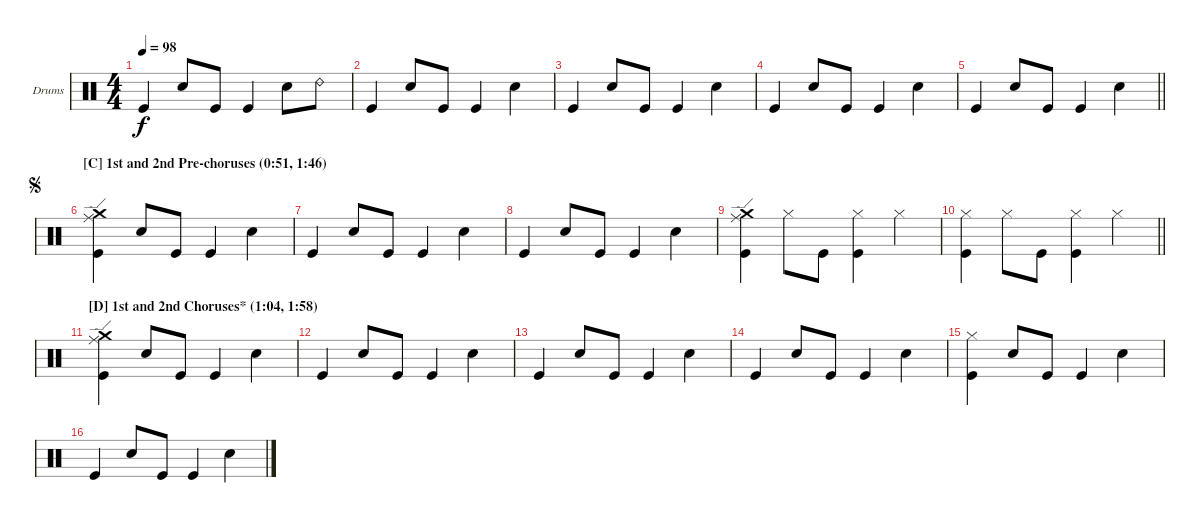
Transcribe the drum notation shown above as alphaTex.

\defaultSystemsLayout 4
\bracketExtendMode groupsimilarinstruments
\firstSystemTrackNameOrientation horizontal
\otherSystemsTrackNameOrientation horizontal
\track ("Drums" "Drums") {instrument percussion}
\staff {score}
\articulation defaults
\ts (4 4)
\tempo 98
\clef neutral
\scale
1.07945
\ks c "Kick (hit)".4{dy f} "Snare (hit) 2".8 "Kick (hit)".8 "Kick (hit)".4 "Snare (hit) 2".8 "Ride (bell) 2".8
|
\scale
0.973518 "Kick (hit)".4 "Snare (hit) 2".8 "Kick (hit)".8 "Kick (hit)".4 "Snare (hit) 2".4 |
\scale
0.973518 "Kick (hit)".4 "Snare (hit) 2".8 "Kick (hit)".8 "Kick (hit)".4 "Snare (hit) 2".4 |
\scale
0.973518 "Kick (hit)".4 "Snare (hit) 2".8 "Kick (hit)".8 "Kick (hit)".4 "Snare (hit) 2".4 |
\scale
1.07945
\barLineRight lightlight "Kick (hit)".4 "Snare (hit) 2".8 "Kick (hit)".8 "Kick (hit)".4 "Snare (hit) 2".4
|
\section ("C" "1st and 2nd Pre-choruses (0:51, 1:46)")
\jump segno
\scale
0.973518 ("Kick (hit)" "Ride (edge)" "Crash medium (hit)").4 "Snare (hit) 2".8 "Kick (hit)".8 "Kick (hit)".4 "Snare (hit) 2".4 |
\scale
0.973518 "Kick (hit)".4 "Snare (hit) 2".8 "Kick (hit)".8 "Kick (hit)".4 "Snare (hit) 2".4 |
\scale
0.973518 "Kick (hit)".4 "Snare (hit) 2".8 "Kick (hit)".8 "Kick (hit)".4 "Snare (hit) 2".4 |
\scale
1.07945 ("Kick (hit)" "Ride (edge)" "Crash medium (hit)").4 "Hi-Hat (closed)".8 "Kick (hit)".8 ("Kick (hit)" "Hi-Hat (closed)").4 "Hi-Hat (closed)".4 |
\scale
0.973518
\barLineRight lightlight
("Kick (hit)" "Hi-Hat (closed)").4 "Hi-Hat (closed)".8 "Kick (hit)".8 ("Kick (hit)" "Hi-Hat (closed)").4 "Hi-Hat (closed)".4 |
\section ("D" "1st and 2nd Choruses* (1:04, 1:58)")
\scale
0.973518 ("Kick (hit)" "Ride (edge)" "Crash medium (hit)").4 "Snare (hit) 2".8 "Kick (hit)".8 "Kick (hit)".4 "Snare (hit) 2".4 |
\scale
0.973518 "Kick (hit)".4 "Snare (hit) 2".8 "Kick (hit)".8 "Kick (hit)".4 "Snare (hit) 2".4 |
\scale
1.07945 "Kick (hit)".4 "Snare (hit) 2".8 "Kick (hit)".8 "Kick (hit)".4 "Snare (hit) 2".4 |
\scale
0.973518 "Kick (hit)".4 "Snare (hit) 2".8 "Kick (hit)".8 "Kick (hit)".4 "Snare (hit) 2".4 |
\scale
0.973518 ("Kick (hit)" "Hi-Hat (closed)").4 "Snare (hit) 2".8 "Kick (hit)".8 "Kick (hit)".4 "Snare (hit) 2".4 |
\scale
0.973518 "Kick (hit)".4 "Snare (hit) 2".8 "Kick (hit)".8 "Kick (hit)".4 "Snare (hit) 2".4
